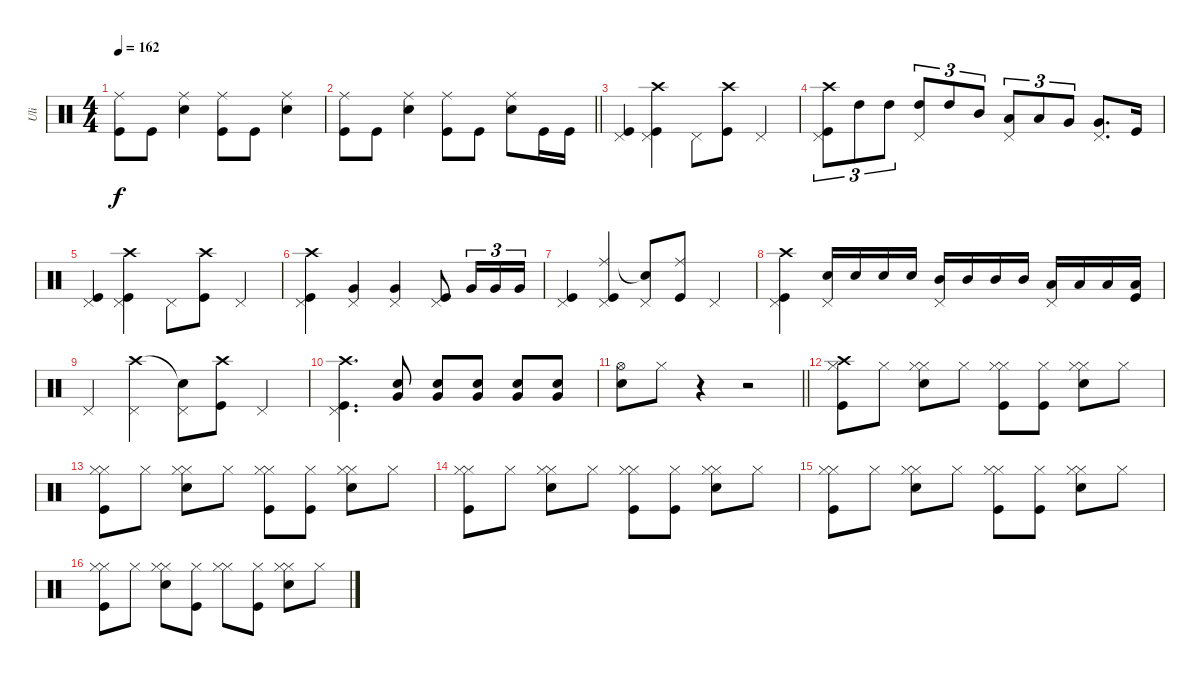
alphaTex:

\track ("Uli" "Uli") {instrument percussion}
\staff {score}
\articulation defaults
\ts (4 4)
\tempo 162
\clef neutral
\ks aminor
("Ride (middle)" "Kick (hit)").8{dy f} "Kick (hit)".8 ("Ride (middle)" "Snare (hit) 2").4 ("Ride (middle)" "Kick (hit)").8 "Kick (hit)".8 ("Ride (middle)" "Snare (hit) 2").4 |
\barLineRight lightlight
("Ride (middle)" "Kick (hit)").8 "Kick (hit)".8 ("Ride (middle)" "Snare (hit) 2").4 ("Ride (middle)" "Kick (hit)").8 "Kick (hit)".8 ("Ride (middle)" "Snare (hit) 2").8 "Kick (hit)".16 "Kick (hit)".16 |
("Pedal Hi-Hat (hit)" "Kick (hit)").4 ("Crash high (hit)" "Pedal Hi-Hat (hit)" "Kick (hit)").4 "Pedal Hi-Hat (hit)".8 ("Crash high (hit)" "Kick (hit)").8 "Pedal Hi-Hat (hit)".4 |
("Crash high (hit)" "Pedal Hi-Hat (hit)" "Kick (hit)").8{tu (3 2)} "High Tom (hit)".8{tu (3 2)} "High Tom (hit)".8{tu (3 2)} ("High Tom (hit)" "Pedal Hi-Hat (hit)").8{tu (3 2)} "High Tom (hit)".8{tu (3 2)} "Mid Tom (hit)".8{tu (3 2)} ("Low Tom (hit)" "Pedal Hi-Hat (hit)").8{tu (3 2)} "Low Tom (hit)".8{tu (3 2)} "Very Low Tom (hit)".8{tu (3 2)} ("Very Low Tom (hit)" "Pedal Hi-Hat (hit)").8{d} "Kick (hit)".16 |
("Pedal Hi-Hat (hit)" "Kick (hit)").4 ("Crash high (hit)" "Pedal Hi-Hat (hit)" "Kick (hit)").4 "Pedal Hi-Hat (hit)".8 ("Crash high (hit)" "Kick (hit)").8 "Pedal Hi-Hat (hit)".4 |
("Crash high (hit)" "Pedal Hi-Hat (hit)" "Kick (hit)").4 ("Very Low Tom (hit)" "Pedal Hi-Hat (hit)").4 ("Very Low Tom (hit)" "Pedal Hi-Hat (hit)").4 ("Pedal Hi-Hat (hit)" "Kick (hit)").8 "Very Low Tom (hit)".16{tu (3 2)} "Very Low Tom (hit)".16{tu (3 2)} "Very Low Tom (hit)".16{tu (3 2)} |
("Pedal Hi-Hat (hit)" "Kick (hit)").4 ("Ride (middle)" "Pedal Hi-Hat (hit)" "Kick (hit)").4 ("Snare (hit)"{t} "Pedal Hi-Hat (hit)").8 ("Ride (middle)" "Kick (hit)").8 "Pedal Hi-Hat (hit)".4 |
("Crash high (hit)" "Pedal Hi-Hat (hit)" "Kick (hit)").4 ("Snare (hit) 2" "Pedal Hi-Hat (hit)").16 "Snare (hit) 2".16 "Snare (hit) 2".16 "Snare (hit) 2".16 ("Mid Tom (hit)" "Pedal Hi-Hat (hit)").16 "Mid Tom (hit)".16 "Mid Tom (hit)".16 "Mid Tom (hit)".16 ("Low Tom (hit)" "Pedal Hi-Hat (hit)").16 "Low Tom (hit)".16 "Low Tom (hit)".16 ("Low Tom (hit)" "Kick (hit)").16 |
"Pedal Hi-Hat (hit)".4 ("Crash high (hit)" "Pedal Hi-Hat (hit)").4 ("Snare (hit)"{t} "Pedal Hi-Hat (hit)").8 ("Crash high (hit)" "Kick (hit)").8 "Pedal Hi-Hat (hit)".4 |
("Crash high (hit)" "Pedal Hi-Hat (hit)" "Kick (hit)").4{d} ("Snare (hit) 2" "Very Low Tom (hit)").8 ("Snare (hit) 2" "Very Low Tom (hit)").8 ("Snare (hit) 2" "Very Low Tom (hit)").8 ("Snare (hit) 2" "Very Low Tom (hit)").8 ("Snare (hit) 2" "Very Low Tom (hit)").8 |
\barLineRight lightlight
("Hi-Hat (open)" "Snare (hit) 2").8 "Hi-Hat (closed)".8 r.4 r.2 |
("Hi-Hat (closed)" "Crash high (hit)" "Kick (hit)").8 "Hi-Hat (closed)".8 ("Hi-Hat (closed)" "Hi-Hat (closed)" "Snare (hit) 2").8 "Hi-Hat (closed)".8 ("Hi-Hat (closed)" "Hi-Hat (closed)" "Kick (hit)").8 ("Hi-Hat (closed)" "Kick (hit)").8 ("Hi-Hat (closed)" "Hi-Hat (closed)" "Snare (hit) 2").8 "Hi-Hat (closed)".8 |
("Hi-Hat (closed)" "Hi-Hat (closed)" "Kick (hit)").8 "Hi-Hat (closed)".8 ("Hi-Hat (closed)" "Hi-Hat (closed)" "Snare (hit) 2").8 "Hi-Hat (closed)".8 ("Hi-Hat (closed)" "Hi-Hat (closed)" "Kick (hit)").8 ("Hi-Hat (closed)" "Kick (hit)").8 ("Hi-Hat (closed)" "Hi-Hat (closed)" "Snare (hit) 2").8 "Hi-Hat (closed)".8 |
("Hi-Hat (closed)" "Hi-Hat (closed)" "Kick (hit)").8 "Hi-Hat (closed)".8 ("Hi-Hat (closed)" "Hi-Hat (closed)" "Snare (hit) 2").8 "Hi-Hat (closed)".8 ("Hi-Hat (closed)" "Hi-Hat (closed)" "Kick (hit)").8 ("Hi-Hat (closed)" "Kick (hit)").8 ("Hi-Hat (closed)" "Hi-Hat (closed)" "Snare (hit) 2").8 "Hi-Hat (closed)".8 |
("Hi-Hat (closed)" "Hi-Hat (closed)" "Kick (hit)").8 "Hi-Hat (closed)".8 ("Hi-Hat (closed)" "Hi-Hat (closed)" "Snare (hit) 2").8 "Hi-Hat (closed)".8 ("Hi-Hat (closed)" "Hi-Hat (closed)" "Kick (hit)").8 ("Hi-Hat (closed)" "Kick (hit)").8 ("Hi-Hat (closed)" "Hi-Hat (closed)" "Snare (hit) 2").8 "Hi-Hat (closed)".8 |
("Hi-Hat (closed)" "Hi-Hat (closed)" "Kick (hit)").8 "Hi-Hat (closed)".8 ("Hi-Hat (closed)" "Hi-Hat (closed)" "Snare (hit) 2").8 ("Hi-Hat (closed)" "Kick (hit)").8 ("Hi-Hat (closed)" "Hi-Hat (closed)").8 ("Hi-Hat (closed)" "Kick (hit)").8 ("Hi-Hat (closed)" "Hi-Hat (closed)" "Snare (hit) 2").8 "Hi-Hat (closed)".8
